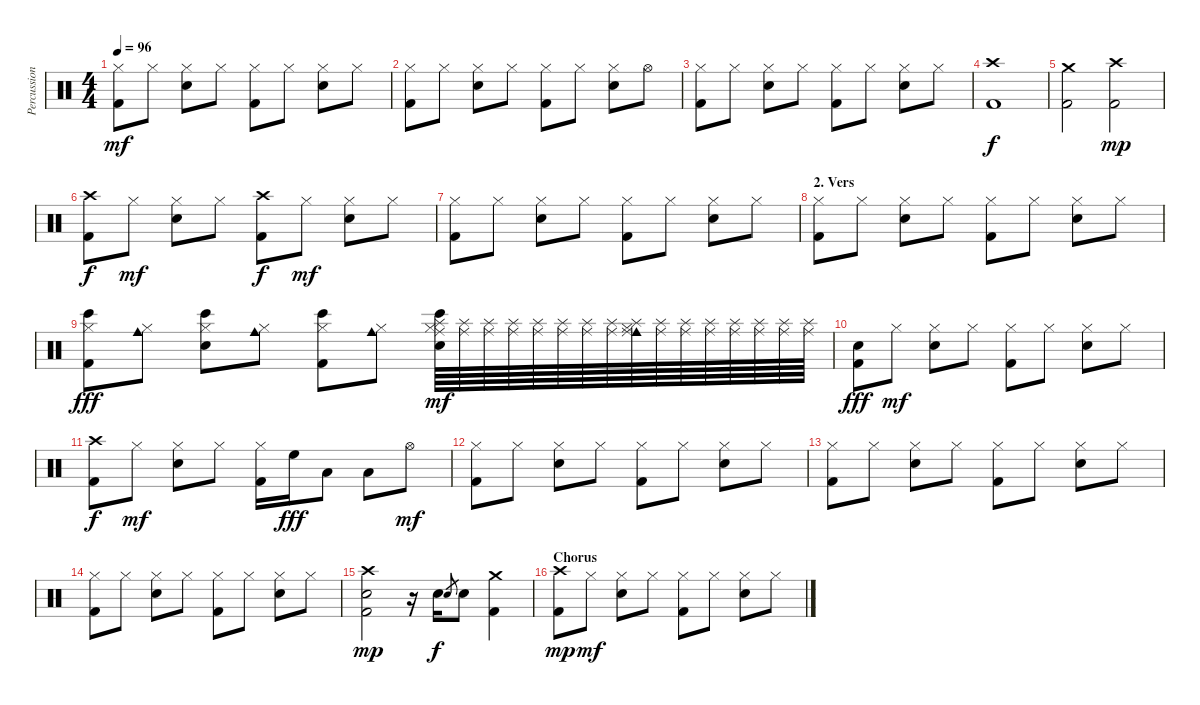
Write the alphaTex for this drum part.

\track ("Percussion - Roger Taylor" "Percussion") {instrument percussion}
\staff {score}
\articulation defaults
\ts (4 4)
\tempo 96
\clef neutral
\ks c
("Hi-Hat (closed)" "Kick (hit) 2").8{dy mf} "Hi-Hat (closed)".8 ("Hi-Hat (closed)" "Electric Snare (hit)").8 "Hi-Hat (closed)".8 ("Hi-Hat (closed)" "Kick (hit) 2").8 "Hi-Hat (closed)".8 ("Hi-Hat (closed)" "Electric Snare (hit)").8 "Hi-Hat (closed)".8 |
("Hi-Hat (closed)" "Kick (hit) 2").8 "Hi-Hat (closed)".8 ("Hi-Hat (closed)" "Electric Snare (hit)").8 "Hi-Hat (closed)".8 ("Hi-Hat (closed)" "Kick (hit) 2").8 "Hi-Hat (closed)".8 ("Hi-Hat (closed)" "Electric Snare (hit)").8 "Hi-Hat (open)".8 |
("Hi-Hat (closed)" "Kick (hit) 2").8 "Hi-Hat (closed)".8 ("Hi-Hat (closed)" "Electric Snare (hit)").8 "Hi-Hat (closed)".8 ("Hi-Hat (closed)" "Kick (hit) 2").8 "Hi-Hat (closed)".8 ("Hi-Hat (closed)" "Electric Snare (hit)").8 "Hi-Hat (closed)".8 |
("Crash high (hit)" "Kick (hit) 2").1{dy f} |
("Crash medium (hit)" "Kick (hit) 2").2 ("Crash high (hit)" "Kick (hit) 2").2{dy mp} |
("Crash high (hit)" "Kick (hit) 2").8{dy f} "Hi-Hat (closed)".8{dy mf} ("Hi-Hat (closed)" "Electric Snare (hit)").8 "Hi-Hat (closed)".8 ("Crash high (hit)" "Kick (hit) 2").8{dy f} "Hi-Hat (closed)".8{dy mf} ("Hi-Hat (closed)" "Electric Snare (hit)").8 "Hi-Hat (closed)".8 |
("Hi-Hat (closed)" "Kick (hit) 2").8 "Hi-Hat (closed)".8 ("Hi-Hat (closed)" "Electric Snare (hit)").8 "Hi-Hat (closed)".8 ("Hi-Hat (closed)" "Kick (hit) 2").8 "Hi-Hat (closed)".8 ("Hi-Hat (closed)" "Electric Snare (hit)").8 "Hi-Hat (closed)".8 |
\section ("" "2. Vers")
("Hi-Hat (closed)" "Kick (hit) 2").8 "Hi-Hat (closed)".8 ("Hi-Hat (closed)" "Electric Snare (hit)").8 "Hi-Hat (closed)".8 ("Hi-Hat (closed)" "Kick (hit) 2").8 "Hi-Hat (closed)".8 ("Hi-Hat (closed)" "Electric Snare (hit)").8 "Hi-Hat (closed)".8 |
("Bongo High (hit)" "Hi-Hat (closed)" "Kick (hit) 2").8{dy fff} ("Cowbell medium (hit)" "Hi-Hat (closed)").8 ("Bongo High (hit)" "Hi-Hat (closed)" "Electric Snare (hit)").8 ("Cowbell medium (hit)" "Hi-Hat (closed)").8 ("Bongo High (hit)" "Hi-Hat (closed)" "Kick (hit) 2").8 ("Cowbell medium (hit)" "Hi-Hat (closed)").8 ("Bongo High (hit)" "Hi-Hat (closed)" "Splash (hit)" "Ride (middle)" "Electric Snare (hit)").64{dy mf} ("Splash (hit)" "Ride (middle)").64 ("Splash (hit)" "Ride (middle)").64 ("Splash (hit)" "Ride (middle)").64 ("Splash (hit)" "Ride (middle)").64 ("Splash (hit)" "Ride (middle)").64 ("Splash (hit)" "Ride (middle)").64 ("Splash (hit)" "Ride (middle)").64 ("Cowbell medium (hit)" "Hi-Hat (closed)" "Splash (hit)" "Ride (middle)").64 ("Splash (hit)" "Ride (middle)").64 ("Splash (hit)" "Ride (middle)").64 ("Splash (hit)" "Ride (middle)").64 ("Splash (hit)" "Ride (middle)").64 ("Splash (hit)" "Ride (middle)").64 ("Splash (hit)" "Ride (middle)").64 ("Splash (hit)" "Ride (middle)").64 |
("Metronome (bell)" "Kick (hit) 2").8{dy fff} "Hi-Hat (closed)".8{dy mf} ("Hi-Hat (closed)" "Electric Snare (hit)").8 "Hi-Hat (closed)".8 ("Hi-Hat (closed)" "Kick (hit) 2").8 "Hi-Hat (closed)".8 ("Hi-Hat (closed)" "Electric Snare (hit)").8 "Hi-Hat (closed)".8 |
("Crash high (hit)" "Kick (hit) 2").8{dy f} "Hi-Hat (closed)".8{dy mf} ("Hi-Hat (closed)" "Electric Snare (hit)").8 "Hi-Hat (closed)".8 ("Hi-Hat (closed)" "Kick (hit) 2").16 "High Floor Tom (hit)".16{dy fff} "Low Tom (hit)".8 "Low Floor Tom (hit)".8 "Hi-Hat (open)".8{dy mf} |
("Hi-Hat (closed)" "Kick (hit) 2").8 "Hi-Hat (closed)".8 ("Hi-Hat (closed)" "Electric Snare (hit)").8 "Hi-Hat (closed)".8 ("Hi-Hat (closed)" "Kick (hit) 2").8 "Hi-Hat (closed)".8 ("Hi-Hat (closed)" "Electric Snare (hit)").8 "Hi-Hat (closed)".8 |
("Hi-Hat (closed)" "Kick (hit) 2").8 "Hi-Hat (closed)".8 ("Hi-Hat (closed)" "Electric Snare (hit)").8 "Hi-Hat (closed)".8 ("Hi-Hat (closed)" "Kick (hit) 2").8 "Hi-Hat (closed)".8 ("Hi-Hat (closed)" "Electric Snare (hit)").8 "Hi-Hat (closed)".8 |
("Hi-Hat (closed)" "Kick (hit) 2").8 "Hi-Hat (closed)".8 ("Hi-Hat (closed)" "Electric Snare (hit)").8 "Hi-Hat (closed)".8 ("Hi-Hat (closed)" "Kick (hit) 2").8 "Hi-Hat (closed)".8 ("Hi-Hat (closed)" "Electric Snare (hit)").8 "Hi-Hat (closed)".8 |
("Crash high (hit)" "Electric Snare (hit)" "Kick (hit) 2").2{dy mp} r.16 "Snare (hit) 2".16{dy f} "Snare (hit) 2".8{gr} "Snare (hit) 2".8 ("Crash medium (hit)" "Kick (hit) 2").4 |
\section ("" "Chorus")
("Crash high (hit)" "Kick (hit) 2").8{dy mp} "Hi-Hat (closed)".8{dy mf} ("Hi-Hat (closed)" "Electric Snare (hit)").8 "Hi-Hat (closed)".8 ("Hi-Hat (closed)" "Kick (hit) 2").8 "Hi-Hat (closed)".8 ("Hi-Hat (closed)" "Electric Snare (hit)").8 "Hi-Hat (closed)".8
